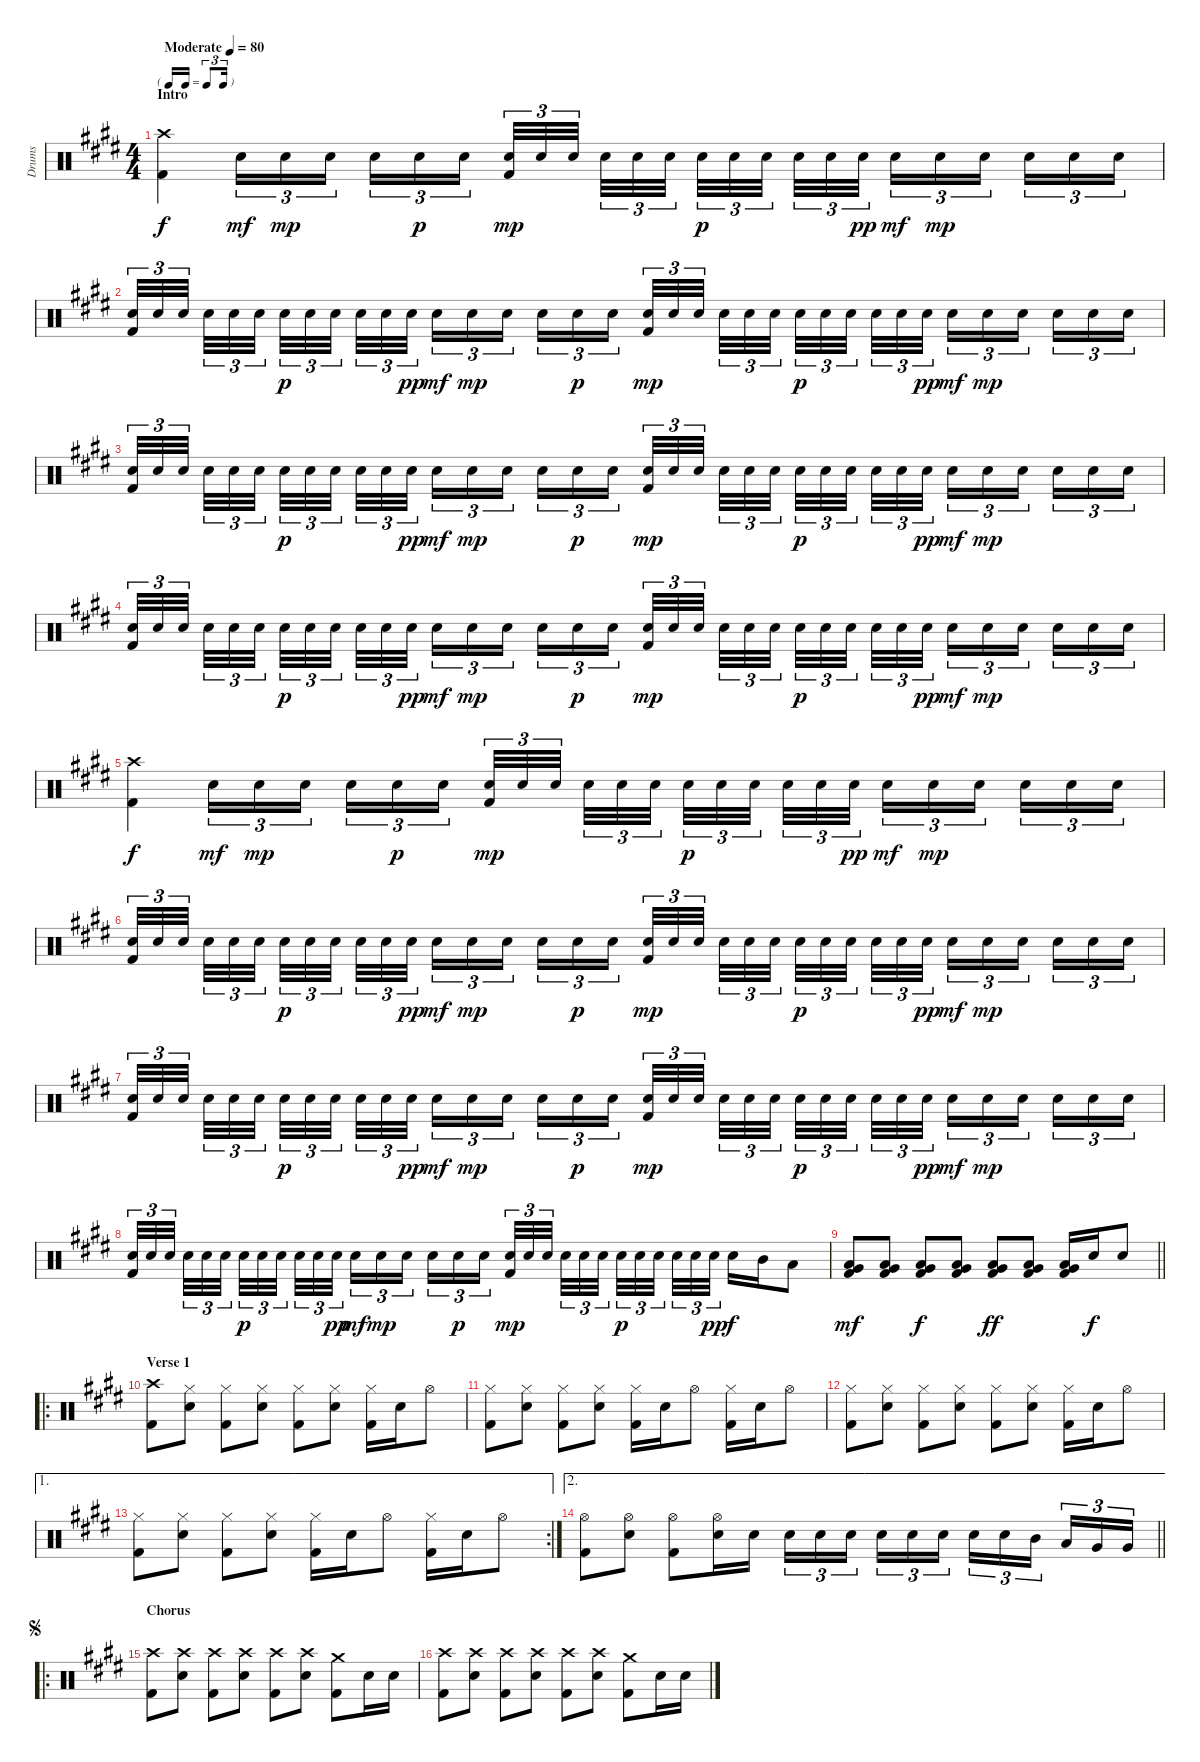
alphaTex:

\track ("Drums" "Drums") {instrument percussion}
\staff {score}
\articulation defaults
\ts (4 4)
\tf triplet16th
\section ("" "Intro")
\tempo (80 "Moderate")
\clef neutral
\ks e
("Kick (hit) 2" "Crash high (hit)").4{dy f} "Snare (hit) 2".16{tu (3 2) dy mf} "Snare (hit) 2".16{tu (3 2) dy mp} "Snare (hit) 2".16{tu (3 2) beam splitsecondary} "Snare (hit) 2".16{tu (3 2)} "Snare (hit) 2".16{tu (3 2) dy p} "Snare (hit) 2".16{tu (3 2)} ("Kick (hit) 2" "Snare (hit) 2").32{tu (3 2) dy mp} "Snare (hit) 2".32{tu (3 2)} "Snare (hit) 2".32{tu (3 2) beam splitsecondary} "Snare (hit) 2".32{tu (3 2)} "Snare (hit) 2".32{tu (3 2)} "Snare (hit) 2".32{tu (3 2) beam splitsecondary} "Snare (hit) 2".32{tu (3 2) dy p} "Snare (hit) 2".32{tu (3 2)} "Snare (hit) 2".32{tu (3 2) beam splitsecondary} "Snare (hit) 2".32{tu (3 2)} "Snare (hit) 2".32{tu (3 2)} "Snare (hit) 2".32{tu (3 2) dy pp} "Snare (hit) 2".16{tu (3 2) dy mf} "Snare (hit) 2".16{tu (3 2) dy mp} "Snare (hit) 2".16{tu (3 2) beam splitsecondary} "Snare (hit) 2".16{tu (3 2)} "Snare (hit) 2".16{tu (3 2)} "Snare (hit) 2".16{tu (3 2)} |
("Kick (hit) 2" "Snare (hit) 2").32{tu (3 2)} "Snare (hit) 2".32{tu (3 2)} "Snare (hit) 2".32{tu (3 2) beam splitsecondary} "Snare (hit) 2".32{tu (3 2)} "Snare (hit) 2".32{tu (3 2)} "Snare (hit) 2".32{tu (3 2) beam splitsecondary} "Snare (hit) 2".32{tu (3 2) dy p} "Snare (hit) 2".32{tu (3 2)} "Snare (hit) 2".32{tu (3 2) beam splitsecondary} "Snare (hit) 2".32{tu (3 2)} "Snare (hit) 2".32{tu (3 2)} "Snare (hit) 2".32{tu (3 2) dy pp} "Snare (hit) 2".16{tu (3 2) dy mf} "Snare (hit) 2".16{tu (3 2) dy mp} "Snare (hit) 2".16{tu (3 2) beam splitsecondary} "Snare (hit) 2".16{tu (3 2)} "Snare (hit) 2".16{tu (3 2) dy p} "Snare (hit) 2".16{tu (3 2)} ("Kick (hit) 2" "Snare (hit) 2").32{tu (3 2) dy mp} "Snare (hit) 2".32{tu (3 2)} "Snare (hit) 2".32{tu (3 2) beam splitsecondary} "Snare (hit) 2".32{tu (3 2)} "Snare (hit) 2".32{tu (3 2)} "Snare (hit) 2".32{tu (3 2) beam splitsecondary} "Snare (hit) 2".32{tu (3 2) dy p} "Snare (hit) 2".32{tu (3 2)} "Snare (hit) 2".32{tu (3 2) beam splitsecondary} "Snare (hit) 2".32{tu (3 2)} "Snare (hit) 2".32{tu (3 2)} "Snare (hit) 2".32{tu (3 2) dy pp} "Snare (hit) 2".16{tu (3 2) dy mf} "Snare (hit) 2".16{tu (3 2) dy mp} "Snare (hit) 2".16{tu (3 2) beam splitsecondary} "Snare (hit) 2".16{tu (3 2)} "Snare (hit) 2".16{tu (3 2)} "Snare (hit) 2".16{tu (3 2)} |
("Kick (hit) 2" "Snare (hit) 2").32{tu (3 2)} "Snare (hit) 2".32{tu (3 2)} "Snare (hit) 2".32{tu (3 2) beam splitsecondary} "Snare (hit) 2".32{tu (3 2)} "Snare (hit) 2".32{tu (3 2)} "Snare (hit) 2".32{tu (3 2) beam splitsecondary} "Snare (hit) 2".32{tu (3 2) dy p} "Snare (hit) 2".32{tu (3 2)} "Snare (hit) 2".32{tu (3 2) beam splitsecondary} "Snare (hit) 2".32{tu (3 2)} "Snare (hit) 2".32{tu (3 2)} "Snare (hit) 2".32{tu (3 2) dy pp} "Snare (hit) 2".16{tu (3 2) dy mf} "Snare (hit) 2".16{tu (3 2) dy mp} "Snare (hit) 2".16{tu (3 2) beam splitsecondary} "Snare (hit) 2".16{tu (3 2)} "Snare (hit) 2".16{tu (3 2) dy p} "Snare (hit) 2".16{tu (3 2)} ("Kick (hit) 2" "Snare (hit) 2").32{tu (3 2) dy mp} "Snare (hit) 2".32{tu (3 2)} "Snare (hit) 2".32{tu (3 2) beam splitsecondary} "Snare (hit) 2".32{tu (3 2)} "Snare (hit) 2".32{tu (3 2)} "Snare (hit) 2".32{tu (3 2) beam splitsecondary} "Snare (hit) 2".32{tu (3 2) dy p} "Snare (hit) 2".32{tu (3 2)} "Snare (hit) 2".32{tu (3 2) beam splitsecondary} "Snare (hit) 2".32{tu (3 2)} "Snare (hit) 2".32{tu (3 2)} "Snare (hit) 2".32{tu (3 2) dy pp} "Snare (hit) 2".16{tu (3 2) dy mf} "Snare (hit) 2".16{tu (3 2) dy mp} "Snare (hit) 2".16{tu (3 2) beam splitsecondary} "Snare (hit) 2".16{tu (3 2)} "Snare (hit) 2".16{tu (3 2)} "Snare (hit) 2".16{tu (3 2)} |
("Kick (hit) 2" "Snare (hit) 2").32{tu (3 2)} "Snare (hit) 2".32{tu (3 2)} "Snare (hit) 2".32{tu (3 2) beam splitsecondary} "Snare (hit) 2".32{tu (3 2)} "Snare (hit) 2".32{tu (3 2)} "Snare (hit) 2".32{tu (3 2) beam splitsecondary} "Snare (hit) 2".32{tu (3 2) dy p} "Snare (hit) 2".32{tu (3 2)} "Snare (hit) 2".32{tu (3 2) beam splitsecondary} "Snare (hit) 2".32{tu (3 2)} "Snare (hit) 2".32{tu (3 2)} "Snare (hit) 2".32{tu (3 2) dy pp} "Snare (hit) 2".16{tu (3 2) dy mf} "Snare (hit) 2".16{tu (3 2) dy mp} "Snare (hit) 2".16{tu (3 2) beam splitsecondary} "Snare (hit) 2".16{tu (3 2)} "Snare (hit) 2".16{tu (3 2) dy p} "Snare (hit) 2".16{tu (3 2)} ("Kick (hit) 2" "Snare (hit) 2").32{tu (3 2) dy mp} "Snare (hit) 2".32{tu (3 2)} "Snare (hit) 2".32{tu (3 2) beam splitsecondary} "Snare (hit) 2".32{tu (3 2)} "Snare (hit) 2".32{tu (3 2)} "Snare (hit) 2".32{tu (3 2) beam splitsecondary} "Snare (hit) 2".32{tu (3 2) dy p} "Snare (hit) 2".32{tu (3 2)} "Snare (hit) 2".32{tu (3 2) beam splitsecondary} "Snare (hit) 2".32{tu (3 2)} "Snare (hit) 2".32{tu (3 2)} "Snare (hit) 2".32{tu (3 2) dy pp} "Snare (hit) 2".16{tu (3 2) dy mf} "Snare (hit) 2".16{tu (3 2) dy mp} "Snare (hit) 2".16{tu (3 2) beam splitsecondary} "Snare (hit) 2".16{tu (3 2)} "Snare (hit) 2".16{tu (3 2)} "Snare (hit) 2".16{tu (3 2)} |
("Kick (hit) 2" "Crash high (hit)").4{dy f} "Snare (hit) 2".16{tu (3 2) dy mf} "Snare (hit) 2".16{tu (3 2) dy mp} "Snare (hit) 2".16{tu (3 2) beam splitsecondary} "Snare (hit) 2".16{tu (3 2)} "Snare (hit) 2".16{tu (3 2) dy p} "Snare (hit) 2".16{tu (3 2)} ("Kick (hit) 2" "Snare (hit) 2").32{tu (3 2) dy mp} "Snare (hit) 2".32{tu (3 2)} "Snare (hit) 2".32{tu (3 2) beam splitsecondary} "Snare (hit) 2".32{tu (3 2)} "Snare (hit) 2".32{tu (3 2)} "Snare (hit) 2".32{tu (3 2) beam splitsecondary} "Snare (hit) 2".32{tu (3 2) dy p} "Snare (hit) 2".32{tu (3 2)} "Snare (hit) 2".32{tu (3 2) beam splitsecondary} "Snare (hit) 2".32{tu (3 2)} "Snare (hit) 2".32{tu (3 2)} "Snare (hit) 2".32{tu (3 2) dy pp} "Snare (hit) 2".16{tu (3 2) dy mf} "Snare (hit) 2".16{tu (3 2) dy mp} "Snare (hit) 2".16{tu (3 2) beam splitsecondary} "Snare (hit) 2".16{tu (3 2)} "Snare (hit) 2".16{tu (3 2)} "Snare (hit) 2".16{tu (3 2)} |
("Kick (hit) 2" "Snare (hit) 2").32{tu (3 2)} "Snare (hit) 2".32{tu (3 2)} "Snare (hit) 2".32{tu (3 2) beam splitsecondary} "Snare (hit) 2".32{tu (3 2)} "Snare (hit) 2".32{tu (3 2)} "Snare (hit) 2".32{tu (3 2) beam splitsecondary} "Snare (hit) 2".32{tu (3 2) dy p} "Snare (hit) 2".32{tu (3 2)} "Snare (hit) 2".32{tu (3 2) beam splitsecondary} "Snare (hit) 2".32{tu (3 2)} "Snare (hit) 2".32{tu (3 2)} "Snare (hit) 2".32{tu (3 2) dy pp} "Snare (hit) 2".16{tu (3 2) dy mf} "Snare (hit) 2".16{tu (3 2) dy mp} "Snare (hit) 2".16{tu (3 2) beam splitsecondary} "Snare (hit) 2".16{tu (3 2)} "Snare (hit) 2".16{tu (3 2) dy p} "Snare (hit) 2".16{tu (3 2)} ("Kick (hit) 2" "Snare (hit) 2").32{tu (3 2) dy mp} "Snare (hit) 2".32{tu (3 2)} "Snare (hit) 2".32{tu (3 2) beam splitsecondary} "Snare (hit) 2".32{tu (3 2)} "Snare (hit) 2".32{tu (3 2)} "Snare (hit) 2".32{tu (3 2) beam splitsecondary} "Snare (hit) 2".32{tu (3 2) dy p} "Snare (hit) 2".32{tu (3 2)} "Snare (hit) 2".32{tu (3 2) beam splitsecondary} "Snare (hit) 2".32{tu (3 2)} "Snare (hit) 2".32{tu (3 2)} "Snare (hit) 2".32{tu (3 2) dy pp} "Snare (hit) 2".16{tu (3 2) dy mf} "Snare (hit) 2".16{tu (3 2) dy mp} "Snare (hit) 2".16{tu (3 2) beam splitsecondary} "Snare (hit) 2".16{tu (3 2)} "Snare (hit) 2".16{tu (3 2)} "Snare (hit) 2".16{tu (3 2)} |
("Kick (hit) 2" "Snare (hit) 2").32{tu (3 2)} "Snare (hit) 2".32{tu (3 2)} "Snare (hit) 2".32{tu (3 2) beam splitsecondary} "Snare (hit) 2".32{tu (3 2)} "Snare (hit) 2".32{tu (3 2)} "Snare (hit) 2".32{tu (3 2) beam splitsecondary} "Snare (hit) 2".32{tu (3 2) dy p} "Snare (hit) 2".32{tu (3 2)} "Snare (hit) 2".32{tu (3 2) beam splitsecondary} "Snare (hit) 2".32{tu (3 2)} "Snare (hit) 2".32{tu (3 2)} "Snare (hit) 2".32{tu (3 2) dy pp} "Snare (hit) 2".16{tu (3 2) dy mf} "Snare (hit) 2".16{tu (3 2) dy mp} "Snare (hit) 2".16{tu (3 2) beam splitsecondary} "Snare (hit) 2".16{tu (3 2)} "Snare (hit) 2".16{tu (3 2) dy p} "Snare (hit) 2".16{tu (3 2)} ("Kick (hit) 2" "Snare (hit) 2").32{tu (3 2) dy mp} "Snare (hit) 2".32{tu (3 2)} "Snare (hit) 2".32{tu (3 2) beam splitsecondary} "Snare (hit) 2".32{tu (3 2)} "Snare (hit) 2".32{tu (3 2)} "Snare (hit) 2".32{tu (3 2) beam splitsecondary} "Snare (hit) 2".32{tu (3 2) dy p} "Snare (hit) 2".32{tu (3 2)} "Snare (hit) 2".32{tu (3 2) beam splitsecondary} "Snare (hit) 2".32{tu (3 2)} "Snare (hit) 2".32{tu (3 2)} "Snare (hit) 2".32{tu (3 2) dy pp} "Snare (hit) 2".16{tu (3 2) dy mf} "Snare (hit) 2".16{tu (3 2) dy mp} "Snare (hit) 2".16{tu (3 2) beam splitsecondary} "Snare (hit) 2".16{tu (3 2)} "Snare (hit) 2".16{tu (3 2)} "Snare (hit) 2".16{tu (3 2)} |
("Kick (hit) 2" "Snare (hit) 2").32{tu (3 2)} "Snare (hit) 2".32{tu (3 2)} "Snare (hit) 2".32{tu (3 2) beam splitsecondary} "Snare (hit) 2".32{tu (3 2)} "Snare (hit) 2".32{tu (3 2)} "Snare (hit) 2".32{tu (3 2) beam splitsecondary} "Snare (hit) 2".32{tu (3 2) dy p} "Snare (hit) 2".32{tu (3 2)} "Snare (hit) 2".32{tu (3 2) beam splitsecondary} "Snare (hit) 2".32{tu (3 2)} "Snare (hit) 2".32{tu (3 2)} "Snare (hit) 2".32{tu (3 2) dy pp} "Snare (hit) 2".16{tu (3 2) dy mf} "Snare (hit) 2".16{tu (3 2) dy mp} "Snare (hit) 2".16{tu (3 2) beam splitsecondary} "Snare (hit) 2".16{tu (3 2)} "Snare (hit) 2".16{tu (3 2) dy p} "Snare (hit) 2".16{tu (3 2)} ("Kick (hit) 2" "Snare (hit) 2").32{tu (3 2) dy mp} "Snare (hit) 2".32{tu (3 2)} "Snare (hit) 2".32{tu (3 2) beam splitsecondary} "Snare (hit) 2".32{tu (3 2)} "Snare (hit) 2".32{tu (3 2)} "Snare (hit) 2".32{tu (3 2) beam splitsecondary} "Snare (hit) 2".32{tu (3 2) dy p} "Snare (hit) 2".32{tu (3 2)} "Snare (hit) 2".32{tu (3 2) beam splitsecondary} "Snare (hit) 2".32{tu (3 2)} "Snare (hit) 2".32{tu (3 2)} "Snare (hit) 2".32{tu (3 2) dy pp} "Electric Snare (hit)".16{dy f} "Mid Tom (hit)".16 "Low Tom (hit)".8 |
\barLineRight lightlight
("Kick (hit) 2" "Very Low Tom (hit)" "Low Tom (hit)").8{dy mf} ("Kick (hit) 2" "Very Low Tom (hit)" "Low Tom (hit)").8 ("Kick (hit) 2" "Very Low Tom (hit)" "Low Tom (hit)").8{dy f} ("Kick (hit) 2" "Very Low Tom (hit)" "Low Tom (hit)").8 ("Kick (hit) 2" "Very Low Tom (hit)" "Low Tom (hit)").8{dy ff} ("Kick (hit) 2" "Very Low Tom (hit)" "Low Tom (hit)").8 ("Kick (hit) 2" "Very Low Tom (hit)" "Low Tom (hit)").16 "Electric Snare (hit)".16{dy f} "Electric Snare (hit)".8 |
\ro
\section ("" "Verse 1")
("Kick (hit) 2" "Crash high (hit)").8 ("Electric Snare (hit)" "Hi-Hat (closed)").8 ("Kick (hit) 2" "Hi-Hat (closed)").8 ("Electric Snare (hit)" "Hi-Hat (closed)").8 ("Kick (hit) 2" "Hi-Hat (closed)").8 ("Electric Snare (hit)" "Hi-Hat (closed)").8 ("Kick (hit) 2" "Hi-Hat (closed)").16 "Electric Snare (hit)".16 "Hi-Hat (open)".8 |
("Kick (hit) 2" "Hi-Hat (closed)").8 ("Electric Snare (hit)" "Hi-Hat (closed)").8 ("Kick (hit) 2" "Hi-Hat (closed)").8 ("Electric Snare (hit)" "Hi-Hat (closed)").8 ("Kick (hit) 2" "Hi-Hat (closed)").16 "Electric Snare (hit)".16 "Hi-Hat (open)".8 ("Kick (hit) 2" "Hi-Hat (closed)").16 "Electric Snare (hit)".16 "Hi-Hat (open)".8 |
("Kick (hit) 2" "Hi-Hat (closed)").8 ("Electric Snare (hit)" "Hi-Hat (closed)").8 ("Kick (hit) 2" "Hi-Hat (closed)").8 ("Electric Snare (hit)" "Hi-Hat (closed)").8 ("Kick (hit) 2" "Hi-Hat (closed)").8 ("Electric Snare (hit)" "Hi-Hat (closed)").8 ("Kick (hit) 2" "Hi-Hat (closed)").16 "Electric Snare (hit)".16 "Hi-Hat (open)".8 |
\ae 1
\rc 2
("Kick (hit) 2" "Hi-Hat (closed)").8 ("Electric Snare (hit)" "Hi-Hat (closed)").8 ("Kick (hit) 2" "Hi-Hat (closed)").8 ("Electric Snare (hit)" "Hi-Hat (closed)").8 ("Kick (hit) 2" "Hi-Hat (closed)").16 "Electric Snare (hit)".16 "Hi-Hat (open)".8 ("Kick (hit) 2" "Hi-Hat (closed)").16 "Electric Snare (hit)".16 "Hi-Hat (open)".8 |
\ae 2
\barLineRight lightlight
("Kick (hit) 2" "Hi-Hat (open)").8 ("Electric Snare (hit)" "Hi-Hat (open)").8 ("Kick (hit) 2" "Hi-Hat (open)").8 ("Electric Snare (hit)" "Hi-Hat (open)").16 "Electric Snare (hit)".16 "Electric Snare (hit)".16{tu (3 2)} "Electric Snare (hit)".16{tu (3 2)} "Electric Snare (hit)".16{tu (3 2) beam splitsecondary} "Electric Snare (hit)".16{tu (3 2)} "Electric Snare (hit)".16{tu (3 2)} "Electric Snare (hit)".16{tu (3 2)} "Electric Snare (hit)".16{tu (3 2)} "Electric Snare (hit)".16{tu (3 2)} "Mid Tom (hit)".16{tu (3 2) beam splitsecondary} "Low Tom (hit)".16{tu (3 2)} "Very Low Tom (hit)".16{tu (3 2)} "Very Low Tom (hit)".16{tu (3 2)} |
\ro
\section ("" "Chorus")
\jump segno
("Kick (hit) 2" "Crash high (hit)").8 ("Crash high (hit)" "Electric Snare (hit)").8 ("Kick (hit) 2" "Crash high (hit)").8 ("Crash high (hit)" "Electric Snare (hit)").8 ("Kick (hit) 2" "Crash high (hit)").8 ("Crash high (hit)" "Electric Snare (hit)").8 ("Kick (hit) 2" "Crash medium (hit)").8 "Electric Snare (hit)".16 "Electric Snare (hit)".16 |
("Kick (hit) 2" "Crash high (hit)").8 ("Crash high (hit)" "Electric Snare (hit)").8 ("Kick (hit) 2" "Crash high (hit)").8 ("Crash high (hit)" "Electric Snare (hit)").8 ("Kick (hit) 2" "Crash high (hit)").8 ("Crash high (hit)" "Electric Snare (hit)").8 ("Kick (hit) 2" "Crash medium (hit)").8 "Electric Snare (hit)".16 "Electric Snare (hit)".16
